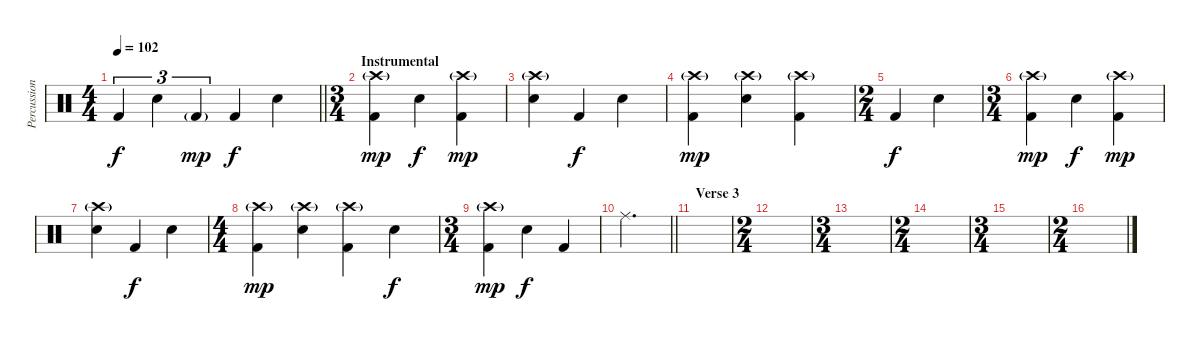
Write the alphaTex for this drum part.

\track ("Percussion" "Percussion") {instrument percussion}
\staff {score}
\articulation defaults
\ts (4 4)
\tempo 102
\clef neutral
\barLineRight lightlight
\ks c "Kick (hit) 2".4{tu (3 2) dy f} "Snare (hit) 2".4{tu (3 2)} "Kick (hit) 2"{g}.4{tu (3 2) dy mp} "Kick (hit) 2".4{dy f} "Snare (hit) 2".4
|
\ts (3 4)
\section ("" "Instrumental")
("Crash high (hit)"{g} "Kick (hit) 2").4{dy mp} "Snare (hit) 2".4{dy f} ("Crash high (hit)"{g} "Kick (hit) 2").4{dy mp} |
("Crash high (hit)"{g} "Snare (hit) 2").4 "Kick (hit) 2".4{dy f} "Snare (hit) 2".4 |
("Crash high (hit)"{g} "Kick (hit) 2").4{dy mp} ("Crash high (hit)"{g} "Snare (hit) 2").4 ("Crash high (hit)"{g} "Kick (hit) 2").4 |
\ts (2 4)
"Kick (hit) 2".4{dy f} "Snare (hit) 2".4 |
\ts (3 4)
("Crash high (hit)"{g} "Kick (hit) 2").4{dy mp} "Snare (hit) 2".4{dy f} ("Crash high (hit)"{g} "Kick (hit) 2").4{dy mp} |
("Crash high (hit)"{g} "Snare (hit) 2").4 "Kick (hit) 2".4{dy f} "Snare (hit) 2".4 |
\ts (4 4)
("Crash high (hit)"{g} "Kick (hit) 2").4{dy mp} ("Crash high (hit)"{g} "Snare (hit) 2").4 ("Crash high (hit)"{g} "Kick (hit) 2").4 "Snare (hit) 2".4{dy f} |
\ts (3 4)
("Crash high (hit)"{g} "Kick (hit) 2").4{dy mp} "Snare (hit) 2".4{dy f} "Kick (hit) 2".4 |
\barLineRight lightlight "Ride (middle)".2{d}
|
\section ("" "Verse 3")
|
\ts (2 4)
|
\ts (3 4)
|
\ts (2 4)
|
\ts (3 4)
|
\ts (2 4)
